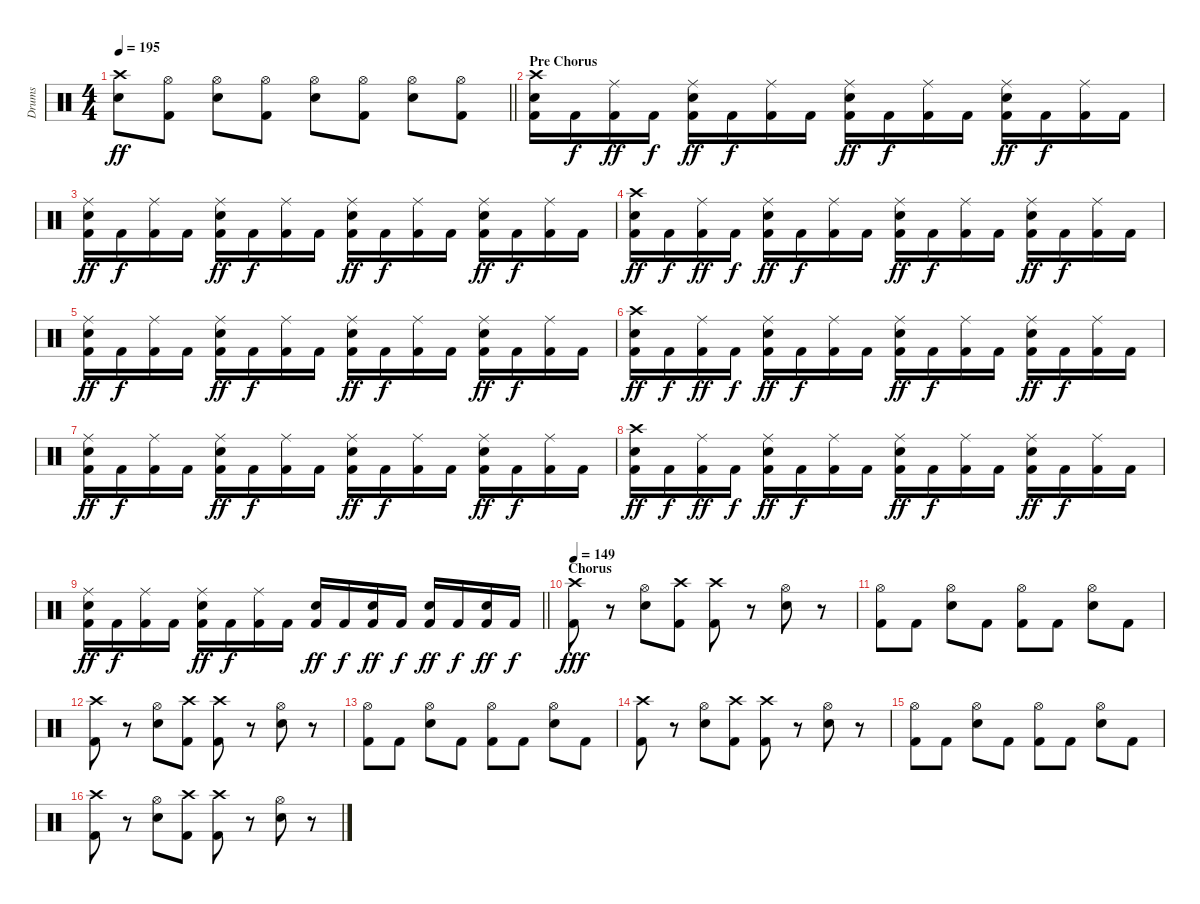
\track ("Drums" "Drums") {instrument percussion}
\staff {score}
\articulation defaults
\ts (4 4)
\tempo 195
\clef neutral
\barLineRight lightlight
\ks c
("Crash high (hit)" "Snare (hit) 2").8{dy ff} ("Hi-Hat (open)" "Kick (hit) 2").8 ("Hi-Hat (open)" "Snare (hit) 2").8 ("Hi-Hat (open)" "Kick (hit) 2").8 ("Hi-Hat (open)" "Snare (hit) 2").8 ("Hi-Hat (open)" "Kick (hit) 2").8 ("Hi-Hat (open)" "Snare (hit) 2").8 ("Hi-Hat (open)" "Kick (hit) 2").8 |
\section ("" "Pre Chorus")
("Crash high (hit)" "Snare (hit) 2" "Kick (hit) 2").16 "Kick (hit) 2".16{dy f} ("Ride (middle)" "Kick (hit) 2").16{dy ff} "Kick (hit) 2".16{dy f} ("Ride (middle)" "Snare (hit) 2" "Kick (hit) 2").16{dy ff} "Kick (hit) 2".16{dy f} ("Ride (middle)" "Kick (hit) 2").16 "Kick (hit) 2".16 ("Ride (middle)" "Snare (hit) 2" "Kick (hit) 2").16{dy ff} "Kick (hit) 2".16{dy f} ("Ride (middle)" "Kick (hit) 2").16 "Kick (hit) 2".16 ("Ride (middle)" "Snare (hit) 2" "Kick (hit) 2").16{dy ff} "Kick (hit) 2".16{dy f} ("Ride (middle)" "Kick (hit) 2").16 "Kick (hit) 2".16 |
("Ride (middle)" "Snare (hit) 2" "Kick (hit) 2").16{dy ff} "Kick (hit) 2".16{dy f} ("Ride (middle)" "Kick (hit) 2").16 "Kick (hit) 2".16 ("Ride (middle)" "Snare (hit) 2" "Kick (hit) 2").16{dy ff} "Kick (hit) 2".16{dy f} ("Ride (middle)" "Kick (hit) 2").16 "Kick (hit) 2".16 ("Ride (middle)" "Snare (hit) 2" "Kick (hit) 2").16{dy ff} "Kick (hit) 2".16{dy f} ("Ride (middle)" "Kick (hit) 2").16 "Kick (hit) 2".16 ("Ride (middle)" "Snare (hit) 2" "Kick (hit) 2").16{dy ff} "Kick (hit) 2".16{dy f} ("Ride (middle)" "Kick (hit) 2").16 "Kick (hit) 2".16 |
("Crash high (hit)" "Snare (hit) 2" "Kick (hit) 2").16{dy ff} "Kick (hit) 2".16{dy f} ("Ride (middle)" "Kick (hit) 2").16{dy ff} "Kick (hit) 2".16{dy f} ("Ride (middle)" "Snare (hit) 2" "Kick (hit) 2").16{dy ff} "Kick (hit) 2".16{dy f} ("Ride (middle)" "Kick (hit) 2").16 "Kick (hit) 2".16 ("Ride (middle)" "Snare (hit) 2" "Kick (hit) 2").16{dy ff} "Kick (hit) 2".16{dy f} ("Ride (middle)" "Kick (hit) 2").16 "Kick (hit) 2".16 ("Ride (middle)" "Snare (hit) 2" "Kick (hit) 2").16{dy ff} "Kick (hit) 2".16{dy f} ("Ride (middle)" "Kick (hit) 2").16 "Kick (hit) 2".16 |
("Ride (middle)" "Snare (hit) 2" "Kick (hit) 2").16{dy ff} "Kick (hit) 2".16{dy f} ("Ride (middle)" "Kick (hit) 2").16 "Kick (hit) 2".16 ("Ride (middle)" "Snare (hit) 2" "Kick (hit) 2").16{dy ff} "Kick (hit) 2".16{dy f} ("Ride (middle)" "Kick (hit) 2").16 "Kick (hit) 2".16 ("Ride (middle)" "Snare (hit) 2" "Kick (hit) 2").16{dy ff} "Kick (hit) 2".16{dy f} ("Ride (middle)" "Kick (hit) 2").16 "Kick (hit) 2".16 ("Ride (middle)" "Snare (hit) 2" "Kick (hit) 2").16{dy ff} "Kick (hit) 2".16{dy f} ("Ride (middle)" "Kick (hit) 2").16 "Kick (hit) 2".16 |
("Crash high (hit)" "Snare (hit) 2" "Kick (hit) 2").16{dy ff} "Kick (hit) 2".16{dy f} ("Ride (middle)" "Kick (hit) 2").16{dy ff} "Kick (hit) 2".16{dy f} ("Ride (middle)" "Snare (hit) 2" "Kick (hit) 2").16{dy ff} "Kick (hit) 2".16{dy f} ("Ride (middle)" "Kick (hit) 2").16 "Kick (hit) 2".16 ("Ride (middle)" "Snare (hit) 2" "Kick (hit) 2").16{dy ff} "Kick (hit) 2".16{dy f} ("Ride (middle)" "Kick (hit) 2").16 "Kick (hit) 2".16 ("Ride (middle)" "Snare (hit) 2" "Kick (hit) 2").16{dy ff} "Kick (hit) 2".16{dy f} ("Ride (middle)" "Kick (hit) 2").16 "Kick (hit) 2".16 |
("Ride (middle)" "Snare (hit) 2" "Kick (hit) 2").16{dy ff} "Kick (hit) 2".16{dy f} ("Ride (middle)" "Kick (hit) 2").16 "Kick (hit) 2".16 ("Ride (middle)" "Snare (hit) 2" "Kick (hit) 2").16{dy ff} "Kick (hit) 2".16{dy f} ("Ride (middle)" "Kick (hit) 2").16 "Kick (hit) 2".16 ("Ride (middle)" "Snare (hit) 2" "Kick (hit) 2").16{dy ff} "Kick (hit) 2".16{dy f} ("Ride (middle)" "Kick (hit) 2").16 "Kick (hit) 2".16 ("Ride (middle)" "Snare (hit) 2" "Kick (hit) 2").16{dy ff} "Kick (hit) 2".16{dy f} ("Ride (middle)" "Kick (hit) 2").16 "Kick (hit) 2".16 |
("Crash high (hit)" "Snare (hit) 2" "Kick (hit) 2").16{dy ff} "Kick (hit) 2".16{dy f} ("Ride (middle)" "Kick (hit) 2").16{dy ff} "Kick (hit) 2".16{dy f} ("Ride (middle)" "Snare (hit) 2" "Kick (hit) 2").16{dy ff} "Kick (hit) 2".16{dy f} ("Ride (middle)" "Kick (hit) 2").16 "Kick (hit) 2".16 ("Ride (middle)" "Snare (hit) 2" "Kick (hit) 2").16{dy ff} "Kick (hit) 2".16{dy f} ("Ride (middle)" "Kick (hit) 2").16 "Kick (hit) 2".16 ("Ride (middle)" "Snare (hit) 2" "Kick (hit) 2").16{dy ff} "Kick (hit) 2".16{dy f} ("Ride (middle)" "Kick (hit) 2").16 "Kick (hit) 2".16 |
\barLineRight lightlight
("Ride (middle)" "Snare (hit) 2" "Kick (hit) 2").16{dy ff} "Kick (hit) 2".16{dy f} ("Ride (middle)" "Kick (hit) 2").16 "Kick (hit) 2".16 ("Ride (middle)" "Snare (hit) 2" "Kick (hit) 2").16{dy ff} "Kick (hit) 2".16{dy f} ("Ride (middle)" "Kick (hit) 2").16 "Kick (hit) 2".16 ("Snare (hit) 2" "Kick (hit) 2").16{dy ff} "Kick (hit) 2".16{dy f} ("Snare (hit) 2" "Kick (hit) 2").16{dy ff} "Kick (hit) 2".16{dy f} ("Snare (hit) 2" "Kick (hit) 2").16{dy ff} "Kick (hit) 2".16{dy f} ("Snare (hit) 2" "Kick (hit) 2").16{dy ff} "Kick (hit) 2".16{dy f} |
\section ("" "Chorus ")
\tempo 149
("Crash high (hit)" "Kick (hit) 2").8{dy fff} r.8 ("Hi-Hat (open)" "Snare (hit) 2").8 ("Crash high (hit)" "Kick (hit) 2").8 ("Crash high (hit)" "Kick (hit) 2").8 r.8 ("Hi-Hat (open)" "Snare (hit) 2").8 r.8 |
("Hi-Hat (open)" "Kick (hit) 2").8 "Kick (hit) 2".8 ("Hi-Hat (open)" "Snare (hit) 2").8 "Kick (hit) 2".8 ("Hi-Hat (open)" "Kick (hit) 2").8 "Kick (hit) 2".8 ("Hi-Hat (open)" "Snare (hit) 2").8 "Kick (hit) 2".8 |
("Crash high (hit)" "Kick (hit) 2").8 r.8 ("Hi-Hat (open)" "Snare (hit) 2").8 ("Crash high (hit)" "Kick (hit) 2").8 ("Crash high (hit)" "Kick (hit) 2").8 r.8 ("Hi-Hat (open)" "Snare (hit) 2").8 r.8 |
("Hi-Hat (open)" "Kick (hit) 2").8 "Kick (hit) 2".8 ("Hi-Hat (open)" "Snare (hit) 2").8 "Kick (hit) 2".8 ("Hi-Hat (open)" "Kick (hit) 2").8 "Kick (hit) 2".8 ("Hi-Hat (open)" "Snare (hit) 2").8 "Kick (hit) 2".8 |
("Crash high (hit)" "Kick (hit) 2").8 r.8 ("Hi-Hat (open)" "Snare (hit) 2").8 ("Crash high (hit)" "Kick (hit) 2").8 ("Crash high (hit)" "Kick (hit) 2").8 r.8 ("Hi-Hat (open)" "Snare (hit) 2").8 r.8 |
("Hi-Hat (open)" "Kick (hit) 2").8 "Kick (hit) 2".8 ("Hi-Hat (open)" "Snare (hit) 2").8 "Kick (hit) 2".8 ("Hi-Hat (open)" "Kick (hit) 2").8 "Kick (hit) 2".8 ("Hi-Hat (open)" "Snare (hit) 2").8 "Kick (hit) 2".8 |
("Crash high (hit)" "Kick (hit) 2").8 r.8 ("Hi-Hat (open)" "Snare (hit) 2").8 ("Crash high (hit)" "Kick (hit) 2").8 ("Crash high (hit)" "Kick (hit) 2").8 r.8 ("Hi-Hat (open)" "Snare (hit) 2").8 r.8
